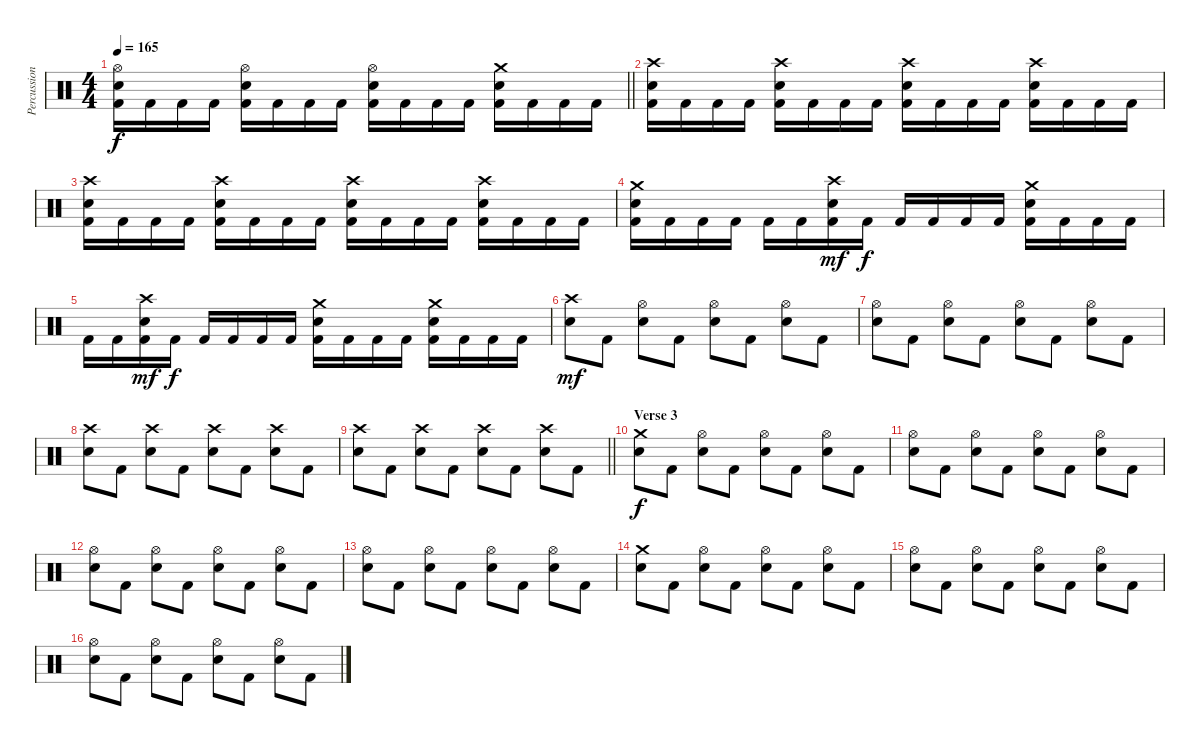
\track ("Percussions" "Percussion") {instrument percussion}
\staff {score}
\articulation defaults
\ts (4 4)
\tempo 165
\clef neutral
\barLineRight lightlight
\ks c
("Hi-Hat (open)" "Electric Snare (hit)" "Kick (hit) 2").16{dy f} "Kick (hit) 2".16 "Kick (hit) 2".16 "Kick (hit) 2".16 ("Hi-Hat (open)" "Electric Snare (hit)" "Kick (hit) 2").16 "Kick (hit) 2".16 "Kick (hit) 2".16 "Kick (hit) 2".16 ("Hi-Hat (open)" "Electric Snare (hit)" "Kick (hit) 2").16 "Kick (hit) 2".16 "Kick (hit) 2".16 "Kick (hit) 2".16 ("Crash medium (hit)" "Electric Snare (hit)" "Kick (hit) 2").16 "Kick (hit) 2".16 "Kick (hit) 2".16 "Kick (hit) 2".16 |
("Crash high (hit)" "Electric Snare (hit)" "Kick (hit) 2").16 "Kick (hit) 2".16 "Kick (hit) 2".16 "Kick (hit) 2".16 ("Crash high (hit)" "Electric Snare (hit)" "Kick (hit) 2").16 "Kick (hit) 2".16 "Kick (hit) 2".16 "Kick (hit) 2".16 ("Crash high (hit)" "Electric Snare (hit)" "Kick (hit) 2").16 "Kick (hit) 2".16 "Kick (hit) 2".16 "Kick (hit) 2".16 ("Crash high (hit)" "Electric Snare (hit)" "Kick (hit) 2").16 "Kick (hit) 2".16 "Kick (hit) 2".16 "Kick (hit) 2".16 |
("Crash high (hit)" "Electric Snare (hit)" "Kick (hit) 2").16 "Kick (hit) 2".16 "Kick (hit) 2".16 "Kick (hit) 2".16 ("Crash high (hit)" "Electric Snare (hit)" "Kick (hit) 2").16 "Kick (hit) 2".16 "Kick (hit) 2".16 "Kick (hit) 2".16 ("Crash high (hit)" "Electric Snare (hit)" "Kick (hit) 2").16 "Kick (hit) 2".16 "Kick (hit) 2".16 "Kick (hit) 2".16 ("Crash high (hit)" "Electric Snare (hit)" "Kick (hit) 2").16 "Kick (hit) 2".16 "Kick (hit) 2".16 "Kick (hit) 2".16 |
("Crash medium (hit)" "Electric Snare (hit)" "Kick (hit) 2").16 "Kick (hit) 2".16 "Kick (hit) 2".16 "Kick (hit) 2".16 "Kick (hit) 2".16 "Kick (hit) 2".16 ("Crash high (hit)" "Electric Snare (hit)" "Kick (hit) 2").16{dy mf} "Kick (hit) 2".16{dy f} "Kick (hit) 2".16 "Kick (hit) 2".16 "Kick (hit) 2".16 "Kick (hit) 2".16 ("Crash medium (hit)" "Electric Snare (hit)" "Kick (hit) 2").16 "Kick (hit) 2".16 "Kick (hit) 2".16 "Kick (hit) 2".16 |
"Kick (hit) 2".16 "Kick (hit) 2".16 ("Crash high (hit)" "Electric Snare (hit)" "Kick (hit) 2").16{dy mf} "Kick (hit) 2".16{dy f} "Kick (hit) 2".16 "Kick (hit) 2".16 "Kick (hit) 2".16 "Kick (hit) 2".16 ("Crash medium (hit)" "Electric Snare (hit)" "Kick (hit) 2").16 "Kick (hit) 2".16 "Kick (hit) 2".16 "Kick (hit) 2".16 ("Crash medium (hit)" "Electric Snare (hit)" "Kick (hit) 2").16 "Kick (hit) 2".16 "Kick (hit) 2".16 "Kick (hit) 2".16 |
("Crash high (hit)" "Electric Snare (hit)").8{dy mf} "Kick (hit) 2".8 ("Hi-Hat (open)" "Electric Snare (hit)").8 "Kick (hit) 2".8 ("Hi-Hat (open)" "Electric Snare (hit)").8 "Kick (hit) 2".8 ("Hi-Hat (open)" "Electric Snare (hit)").8 "Kick (hit) 2".8 |
("Hi-Hat (open)" "Electric Snare (hit)").8 "Kick (hit) 2".8 ("Hi-Hat (open)" "Electric Snare (hit)").8 "Kick (hit) 2".8 ("Hi-Hat (open)" "Electric Snare (hit)").8 "Kick (hit) 2".8 ("Hi-Hat (open)" "Electric Snare (hit)").8 "Kick (hit) 2".8 |
("Crash high (hit)" "Electric Snare (hit)").8 "Kick (hit) 2".8 ("Crash high (hit)" "Electric Snare (hit)").8 "Kick (hit) 2".8 ("Crash high (hit)" "Electric Snare (hit)").8 "Kick (hit) 2".8 ("Crash high (hit)" "Electric Snare (hit)").8 "Kick (hit) 2".8 |
\barLineRight lightlight
("Crash high (hit)" "Electric Snare (hit)").8 "Kick (hit) 2".8 ("Crash high (hit)" "Electric Snare (hit)").8 "Kick (hit) 2".8 ("Crash high (hit)" "Electric Snare (hit)").8 "Kick (hit) 2".8 ("Crash high (hit)" "Electric Snare (hit)").8 "Kick (hit) 2".8 |
\section ("" "Verse 3")
("Crash medium (hit)" "Electric Snare (hit)").8{dy f} "Kick (hit) 2".8 ("Hi-Hat (open)" "Electric Snare (hit)").8 "Kick (hit) 2".8 ("Hi-Hat (open)" "Electric Snare (hit)").8 "Kick (hit) 2".8 ("Hi-Hat (open)" "Electric Snare (hit)").8 "Kick (hit) 2".8 |
("Hi-Hat (open)" "Electric Snare (hit)").8 "Kick (hit) 2".8 ("Hi-Hat (open)" "Electric Snare (hit)").8 "Kick (hit) 2".8 ("Hi-Hat (open)" "Electric Snare (hit)").8 "Kick (hit) 2".8 ("Hi-Hat (open)" "Electric Snare (hit)").8 "Kick (hit) 2".8 |
("Hi-Hat (open)" "Electric Snare (hit)").8 "Kick (hit) 2".8 ("Hi-Hat (open)" "Electric Snare (hit)").8 "Kick (hit) 2".8 ("Hi-Hat (open)" "Electric Snare (hit)").8 "Kick (hit) 2".8 ("Hi-Hat (open)" "Electric Snare (hit)").8 "Kick (hit) 2".8 |
("Hi-Hat (open)" "Electric Snare (hit)").8 "Kick (hit) 2".8 ("Hi-Hat (open)" "Electric Snare (hit)").8 "Kick (hit) 2".8 ("Hi-Hat (open)" "Electric Snare (hit)").8 "Kick (hit) 2".8 ("Hi-Hat (open)" "Electric Snare (hit)").8 "Kick (hit) 2".8 |
("Crash medium (hit)" "Electric Snare (hit)").8 "Kick (hit) 2".8 ("Hi-Hat (open)" "Electric Snare (hit)").8 "Kick (hit) 2".8 ("Hi-Hat (open)" "Electric Snare (hit)").8 "Kick (hit) 2".8 ("Hi-Hat (open)" "Electric Snare (hit)").8 "Kick (hit) 2".8 |
("Hi-Hat (open)" "Electric Snare (hit)").8 "Kick (hit) 2".8 ("Hi-Hat (open)" "Electric Snare (hit)").8 "Kick (hit) 2".8 ("Hi-Hat (open)" "Electric Snare (hit)").8 "Kick (hit) 2".8 ("Hi-Hat (open)" "Electric Snare (hit)").8 "Kick (hit) 2".8 |
("Hi-Hat (open)" "Electric Snare (hit)").8 "Kick (hit) 2".8 ("Hi-Hat (open)" "Electric Snare (hit)").8 "Kick (hit) 2".8 ("Hi-Hat (open)" "Electric Snare (hit)").8 "Kick (hit) 2".8 ("Hi-Hat (open)" "Electric Snare (hit)").8 "Kick (hit) 2".8
